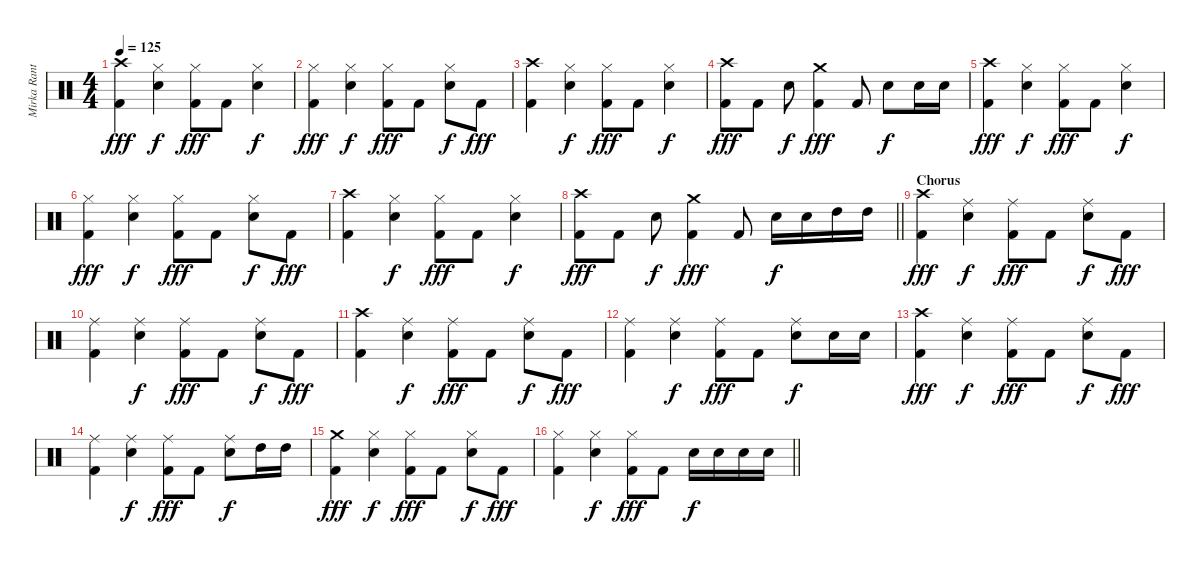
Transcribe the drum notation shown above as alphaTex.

\track ("Mirka Rantanen (Thunderstone)" "Mirka Rant") {instrument percussion}
\staff {score}
\articulation defaults
\ts (4 4)
\tempo 125
\clef neutral
\ks c
("Crash high (hit)" "Kick (hit) 2").4{dy fff} ("Hi-Hat (closed)" "Electric Snare (hit)").4{dy f} ("Hi-Hat (closed)" "Kick (hit) 2").8{dy fff} "Kick (hit) 2".8 ("Hi-Hat (closed)" "Electric Snare (hit)").4{dy f} |
("Hi-Hat (closed)" "Kick (hit) 2").4{dy fff} ("Hi-Hat (closed)" "Electric Snare (hit)").4{dy f} ("Hi-Hat (closed)" "Kick (hit) 2").8{dy fff} "Kick (hit) 2".8 ("Hi-Hat (closed)" "Electric Snare (hit)").8{dy f} "Kick (hit) 2".8{dy fff} |
("Crash high (hit)" "Kick (hit) 2").4 ("Hi-Hat (closed)" "Electric Snare (hit)").4{dy f} ("Hi-Hat (closed)" "Kick (hit) 2").8{dy fff} "Kick (hit) 2".8 ("Hi-Hat (closed)" "Electric Snare (hit)").4{dy f} |
("Crash high (hit)" "Kick (hit) 2").8{dy fff} "Kick (hit) 2".8 "Electric Snare (hit)".8{dy f} ("Crash medium (hit)" "Kick (hit) 2").4{dy fff} "Kick (hit) 2".8 "Electric Snare (hit)".8{dy f} "Electric Snare (hit)".16 "Electric Snare (hit)".16 |
("Crash high (hit)" "Kick (hit) 2").4{dy fff} ("Hi-Hat (closed)" "Electric Snare (hit)").4{dy f} ("Hi-Hat (closed)" "Kick (hit) 2").8{dy fff} "Kick (hit) 2".8 ("Hi-Hat (closed)" "Electric Snare (hit)").4{dy f} |
("Hi-Hat (closed)" "Kick (hit) 2").4{dy fff} ("Hi-Hat (closed)" "Electric Snare (hit)").4{dy f} ("Hi-Hat (closed)" "Kick (hit) 2").8{dy fff} "Kick (hit) 2".8 ("Hi-Hat (closed)" "Electric Snare (hit)").8{dy f} "Kick (hit) 2".8{dy fff} |
("Crash high (hit)" "Kick (hit) 2").4 ("Hi-Hat (closed)" "Electric Snare (hit)").4{dy f} ("Hi-Hat (closed)" "Kick (hit) 2").8{dy fff} "Kick (hit) 2".8 ("Hi-Hat (closed)" "Electric Snare (hit)").4{dy f} |
\barLineRight lightlight
("Crash high (hit)" "Kick (hit) 2").8{dy fff} "Kick (hit) 2".8 "Electric Snare (hit)".8{dy f} ("Crash medium (hit)" "Kick (hit) 2").4{dy fff} "Kick (hit) 2".8 "Electric Snare (hit)".16{dy f} "Electric Snare (hit)".16 "High Tom (hit)".16 "High Tom (hit)".16 |
\section ("" "Chorus")
("Crash high (hit)" "Kick (hit) 2").4{dy fff} ("Ride (middle)" "Electric Snare (hit)").4{dy f} ("Ride (middle)" "Kick (hit) 2").8{dy fff} "Kick (hit) 2".8 ("Ride (middle)" "Electric Snare (hit)").8{dy f} "Kick (hit) 2".8{dy fff} |
("Ride (middle)" "Kick (hit) 2").4 ("Ride (middle)" "Electric Snare (hit)").4{dy f} ("Ride (middle)" "Kick (hit) 2").8{dy fff} "Kick (hit) 2".8 ("Ride (middle)" "Electric Snare (hit)").8{dy f} "Kick (hit) 2".8{dy fff} |
("Crash high (hit)" "Kick (hit) 2").4 ("Ride (middle)" "Electric Snare (hit)").4{dy f} ("Ride (middle)" "Kick (hit) 2").8{dy fff} "Kick (hit) 2".8 ("Ride (middle)" "Electric Snare (hit)").8{dy f} "Kick (hit) 2".8{dy fff} |
("Ride (middle)" "Kick (hit) 2").4 ("Ride (middle)" "Electric Snare (hit)").4{dy f} ("Ride (middle)" "Kick (hit) 2").8{dy fff} "Kick (hit) 2".8 ("Ride (middle)" "Electric Snare (hit)").8{dy f} "Electric Snare (hit)".16 "Electric Snare (hit)".16 |
("Crash high (hit)" "Kick (hit) 2").4{dy fff} ("Ride (middle)" "Electric Snare (hit)").4{dy f} ("Ride (middle)" "Kick (hit) 2").8{dy fff} "Kick (hit) 2".8 ("Ride (middle)" "Electric Snare (hit)").8{dy f} "Kick (hit) 2".8{dy fff} |
("Ride (middle)" "Kick (hit) 2").4 ("Ride (middle)" "Electric Snare (hit)").4{dy f} ("Ride (middle)" "Kick (hit) 2").8{dy fff} "Kick (hit) 2".8 ("Ride (middle)" "Electric Snare (hit)").8{dy f} "High Tom (hit)".16 "High Tom (hit)".16 |
("Crash medium (hit)" "Kick (hit) 2").4{dy fff} ("Hi-Hat (closed)" "Electric Snare (hit)").4{dy f} ("Hi-Hat (closed)" "Kick (hit) 2").8{dy fff} "Kick (hit) 2".8 ("Hi-Hat (closed)" "Electric Snare (hit)").8{dy f} "Kick (hit) 2".8{dy fff} |
\barLineRight lightlight
("Hi-Hat (closed)" "Kick (hit) 2").4 ("Hi-Hat (closed)" "Electric Snare (hit)").4{dy f} ("Hi-Hat (closed)" "Kick (hit) 2").8{dy fff} "Kick (hit) 2".8 "Electric Snare (hit)".16{dy f} "Electric Snare (hit)".16 "Electric Snare (hit)".16 "Electric Snare (hit)".16
